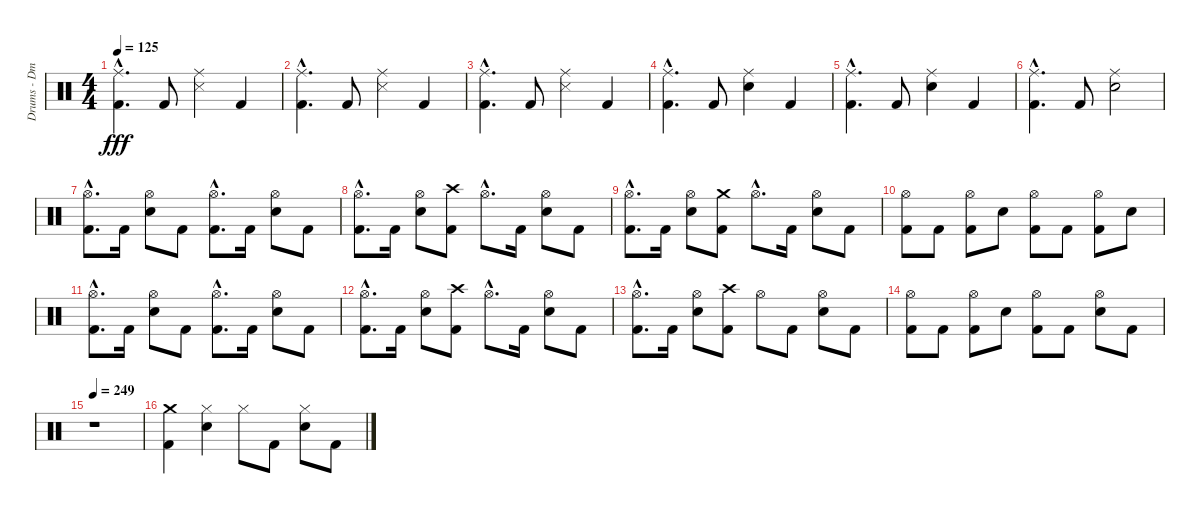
\track ("Drums - Dmitriy Krivenkov" "Drums - Dm") {instrument percussion}
\staff {score}
\articulation defaults
\ts (4 4)
\tempo 125
\clef neutral
\ks c
("Ride (middle)"{hac} "Kick (hit) 2"{hac}).4{d dy fff} "Kick (hit) 2".8 ("Ride (middle)" "Snare (side stick) 3").4 "Kick (hit) 2".4 |
("Ride (middle)"{hac} "Kick (hit) 2"{hac}).4{d} "Kick (hit) 2".8 ("Ride (middle)" "Snare (side stick) 3").4 "Kick (hit) 2".4 |
("Ride (middle)"{hac} "Kick (hit) 2"{hac}).4{d} "Kick (hit) 2".8 ("Snare (side stick) 3" "Ride (middle)").4 "Kick (hit) 2".4 |
("Ride (middle)"{hac} "Kick (hit) 2"{hac}).4{d} "Kick (hit) 2".8 ("Ride (middle)" "Electric Snare (hit)").4 "Kick (hit) 2".4 |
("Ride (middle)"{hac} "Kick (hit) 2"{hac}).4{d} "Kick (hit) 2".8 ("Ride (middle)" "Electric Snare (hit)").4 "Kick (hit) 2".4 |
("Ride (middle)"{hac} "Kick (hit) 2"{hac}).4{d} "Kick (hit) 2".8 ("Ride (middle)" "Electric Snare (hit)").2 |
("Hi-Hat (open)"{hac} "Kick (hit) 2"{hac}).8{d} "Kick (hit) 2".16 ("Hi-Hat (open)" "Electric Snare (hit)").8 "Kick (hit) 2".8 ("Hi-Hat (open)"{hac} "Kick (hit) 2"{hac}).8{d} "Kick (hit) 2".16 ("Hi-Hat (open)" "Electric Snare (hit)").8 "Kick (hit) 2".8 |
("Hi-Hat (open)"{hac} "Kick (hit) 2"{hac}).8{d} "Kick (hit) 2".16 ("Hi-Hat (open)" "Electric Snare (hit)").8 ("Crash high (hit)" "Kick (hit) 2").8 "Hi-Hat (open)"{hac}.8{d} "Kick (hit) 2".16 ("Hi-Hat (open)" "Electric Snare (hit)").8 "Kick (hit) 2".8 |
("Hi-Hat (open)"{hac} "Kick (hit) 2"{hac}).8{d} "Kick (hit) 2".16 ("Hi-Hat (open)" "Electric Snare (hit)").8 ("Kick (hit) 2" "Crash medium (hit)").8 "Hi-Hat (open)"{hac}.8{d} "Kick (hit) 2".16 ("Hi-Hat (open)" "Electric Snare (hit)").8 "Kick (hit) 2".8 |
("Hi-Hat (open)" "Kick (hit) 2").8 "Kick (hit) 2".8 ("Hi-Hat (open)" "Kick (hit) 2").8 "Electric Snare (hit)".8 ("Kick (hit) 2" "Hi-Hat (open)").8 "Kick (hit) 2".8 ("Hi-Hat (open)" "Kick (hit) 2").8 "Electric Snare (hit)".8 |
("Hi-Hat (open)"{hac} "Kick (hit) 2"{hac}).8{d} "Kick (hit) 2".16 ("Hi-Hat (open)" "Electric Snare (hit)").8 "Kick (hit) 2".8 ("Hi-Hat (open)"{hac} "Kick (hit) 2"{hac}).8{d} "Kick (hit) 2".16 ("Hi-Hat (open)" "Electric Snare (hit)").8 "Kick (hit) 2".8 |
("Hi-Hat (open)"{hac} "Kick (hit) 2"{hac}).8{d} "Kick (hit) 2".16 ("Hi-Hat (open)" "Electric Snare (hit)").8 ("Kick (hit) 2" "Crash high (hit)").8 "Hi-Hat (open)"{hac}.8{d} "Kick (hit) 2".16 ("Hi-Hat (open)" "Electric Snare (hit)").8 "Kick (hit) 2".8 |
("Hi-Hat (open)"{hac} "Kick (hit) 2"{hac}).8{d} "Kick (hit) 2".16 ("Hi-Hat (open)" "Electric Snare (hit)").8 ("Crash high (hit)" "Kick (hit) 2").8 "Hi-Hat (open)".8 "Kick (hit) 2".8 ("Hi-Hat (open)" "Electric Snare (hit)").8 "Kick (hit) 2".8 |
("Hi-Hat (open)" "Kick (hit) 2").8 "Kick (hit) 2".8 ("Hi-Hat (open)" "Kick (hit) 2").8 "Electric Snare (hit)".8 ("Hi-Hat (open)" "Kick (hit) 2").8 "Kick (hit) 2".8 ("Hi-Hat (open)" "Electric Snare (hit)").8 "Kick (hit) 2".8 |
\tempo 249
r.1 |
("Kick (hit) 2" "Crash medium (hit)").4 ("Hi-Hat (closed)" "Electric Snare (hit)").4 "Hi-Hat (closed)".8 "Kick (hit) 2".8 ("Hi-Hat (closed)" "Electric Snare (hit)").8 "Kick (hit) 2".8
